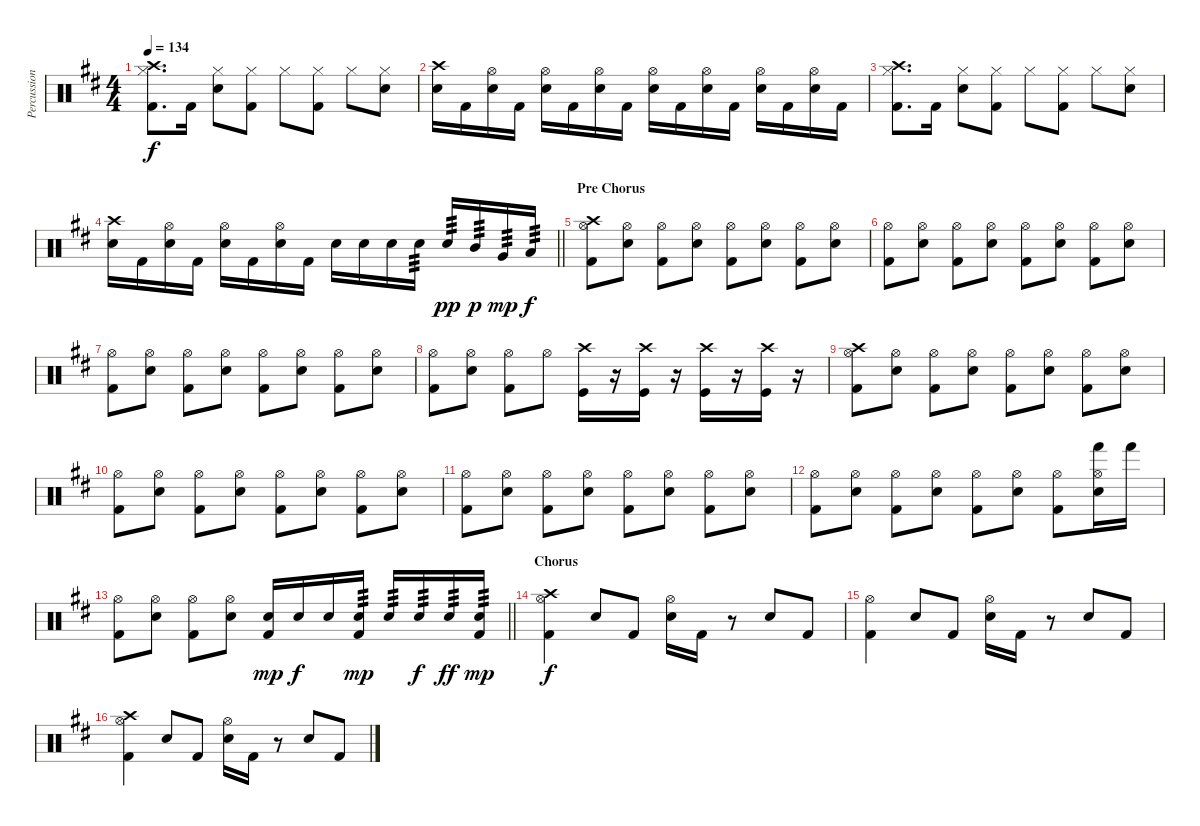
\track ("Percussion" "Percussion") {instrument percussion}
\staff {score}
\articulation defaults
\ts (4 4)
\tempo 134
\clef neutral
\ks bminor
("Crash high (hit)" "Hi-Hat (closed)" "Kick (hit) 2").8{d dy f} "Kick (hit) 2".16 ("Hi-Hat (closed)" "Snare (hit) 2").8 ("Hi-Hat (closed)" "Kick (hit) 2").8 "Hi-Hat (closed)".8 ("Hi-Hat (closed)" "Kick (hit) 2").8 "Hi-Hat (closed)".8 ("Hi-Hat (closed)" "Snare (hit) 2").8 |
("Crash high (hit)" "Snare (hit) 2").16 "Kick (hit) 2".16 ("Hi-Hat (open)" "Snare (hit) 2").16 "Kick (hit) 2".16 ("Hi-Hat (open)" "Snare (hit) 2").16 "Kick (hit) 2".16 ("Hi-Hat (open)" "Snare (hit) 2").16 "Kick (hit) 2".16 ("Hi-Hat (open)" "Snare (hit) 2").16 "Kick (hit) 2".16 ("Hi-Hat (open)" "Snare (hit) 2").16 "Kick (hit) 2".16 ("Hi-Hat (open)" "Snare (hit) 2").16 "Kick (hit) 2".16 ("Hi-Hat (open)" "Snare (hit) 2").16 "Kick (hit) 2".16 |
("Crash high (hit)" "Hi-Hat (closed)" "Kick (hit) 2").8{d} "Kick (hit) 2".16 ("Hi-Hat (closed)" "Snare (hit) 2").8 ("Hi-Hat (closed)" "Kick (hit) 2").8 "Hi-Hat (closed)".8 ("Hi-Hat (closed)" "Kick (hit) 2").8 "Hi-Hat (closed)".8 ("Hi-Hat (closed)" "Snare (hit) 2").8 |
\barLineRight lightlight
("Crash high (hit)" "Snare (hit) 2").16 "Kick (hit) 2".16 ("Hi-Hat (open)" "Snare (hit) 2").16 "Kick (hit) 2".16 ("Hi-Hat (open)" "Snare (hit) 2").16 "Kick (hit) 2".16 ("Hi-Hat (open)" "Snare (hit) 2").16 "Kick (hit) 2".16 "Snare (hit) 2".16 "Snare (hit) 2".16 "Snare (hit) 2".16 "Snare (hit) 2".16{tp 3} "Snare (hit) 2".16{tp 3 dy pp} "Mid Tom (hit)".16{tp 3 dy p} "Very Low Tom (hit)".16{tp 3 dy mp} "Low Floor Tom (hit)".16{tp 3 dy f} |
\section ("" "Pre Chorus")
("Crash high (hit)" "Hi-Hat (open)" "Kick (hit) 2").8 ("Hi-Hat (open)" "Snare (hit) 2").8 ("Hi-Hat (open)" "Kick (hit) 2").8 ("Hi-Hat (open)" "Snare (hit) 2").8 ("Hi-Hat (open)" "Kick (hit) 2").8 ("Hi-Hat (open)" "Snare (hit) 2").8 ("Hi-Hat (open)" "Kick (hit) 2").8 ("Hi-Hat (open)" "Snare (hit) 2").8 |
("Hi-Hat (open)" "Kick (hit) 2").8 ("Hi-Hat (open)" "Snare (hit) 2").8 ("Hi-Hat (open)" "Kick (hit) 2").8 ("Hi-Hat (open)" "Snare (hit) 2").8 ("Hi-Hat (open)" "Kick (hit) 2").8 ("Hi-Hat (open)" "Snare (hit) 2").8 ("Hi-Hat (open)" "Kick (hit) 2").8 ("Hi-Hat (open)" "Snare (hit) 2").8 |
("Hi-Hat (open)" "Kick (hit) 2").8 ("Hi-Hat (open)" "Snare (hit) 2").8 ("Hi-Hat (open)" "Kick (hit) 2").8 ("Hi-Hat (open)" "Snare (hit) 2").8 ("Hi-Hat (open)" "Kick (hit) 2").8 ("Hi-Hat (open)" "Snare (hit) 2").8 ("Hi-Hat (open)" "Kick (hit) 2").8 ("Hi-Hat (open)" "Snare (hit) 2").8 |
("Hi-Hat (open)" "Kick (hit) 2").8 ("Hi-Hat (open)" "Snare (hit) 2").8 ("Hi-Hat (open)" "Kick (hit) 2").8 "Hi-Hat (open)".8 ("Crash high (hit)" "Kick (hit)").16 r.16 ("Crash high (hit)" "Kick (hit)").16 r.16 ("Crash high (hit)" "Kick (hit)").16 r.16 ("Crash high (hit)" "Kick (hit)").16 r.16 |
("Crash high (hit)" "Hi-Hat (open)" "Kick (hit) 2").8 ("Hi-Hat (open)" "Snare (hit) 2").8 ("Hi-Hat (open)" "Kick (hit) 2").8 ("Hi-Hat (open)" "Snare (hit) 2").8 ("Hi-Hat (open)" "Kick (hit) 2").8 ("Hi-Hat (open)" "Snare (hit) 2").8 ("Hi-Hat (open)" "Kick (hit) 2").8 ("Hi-Hat (open)" "Snare (hit) 2").8 |
("Hi-Hat (open)" "Kick (hit) 2").8 ("Hi-Hat (open)" "Snare (hit) 2").8 ("Hi-Hat (open)" "Kick (hit) 2").8 ("Hi-Hat (open)" "Snare (hit) 2").8 ("Hi-Hat (open)" "Kick (hit) 2").8 ("Hi-Hat (open)" "Snare (hit) 2").8 ("Hi-Hat (open)" "Kick (hit) 2").8 ("Hi-Hat (open)" "Snare (hit) 2").8 |
("Hi-Hat (open)" "Kick (hit) 2").8 ("Hi-Hat (open)" "Snare (hit) 2").8 ("Hi-Hat (open)" "Kick (hit) 2").8 ("Hi-Hat (open)" "Snare (hit) 2").8 ("Hi-Hat (open)" "Kick (hit) 2").8 ("Hi-Hat (open)" "Snare (hit) 2").8 ("Hi-Hat (open)" "Kick (hit) 2").8 ("Hi-Hat (open)" "Snare (hit) 2").8 |
("Hi-Hat (open)" "Kick (hit) 2").8 ("Hi-Hat (open)" "Snare (hit) 2").8 ("Hi-Hat (open)" "Kick (hit) 2").8 ("Hi-Hat (open)" "Snare (hit) 2").8 ("Hi-Hat (open)" "Kick (hit) 2").8 ("Hi-Hat (open)" "Snare (hit) 2").8 ("Hi-Hat (open)" "Kick (hit) 2").8 ("Hand (hit)" "Hi-Hat (open)" "Snare (hit) 2").16 "Hand (hit)".16 |
\barLineRight lightlight
("Hi-Hat (open)" "Kick (hit) 2").8 ("Hi-Hat (open)" "Snare (hit) 2").8 ("Hi-Hat (open)" "Kick (hit) 2").8 ("Hi-Hat (open)" "Snare (hit) 2").8 ("Snare (hit) 2" "Kick (hit) 2").16{dy mp} "Snare (hit) 2".16{dy f} "Snare (hit) 2".16 ("Snare (hit) 2" "Kick (hit) 2").16{tp 3 dy mp} "Snare (hit) 2".16{tp 3} "Snare (hit) 2".16{tp 3 dy f} "Snare (hit) 2".16{tp 3 dy ff} ("Snare (hit) 2" "Kick (hit) 2").16{tp 3 dy mp} |
\section ("" "Chorus")
("Crash high (hit)" "Hi-Hat (open)" "Kick (hit) 2").4{dy f} "Snare (hit) 2".8 "Kick (hit) 2".8 ("Hi-Hat (open)" "Snare (hit) 2").16 "Kick (hit) 2".16 r.8 "Snare (hit) 2".8 "Kick (hit) 2".8 |
("Hi-Hat (open)" "Kick (hit) 2").4 "Snare (hit) 2".8 "Kick (hit) 2".8 ("Hi-Hat (open)" "Snare (hit) 2").16 "Kick (hit) 2".16 r.8 "Snare (hit) 2".8 "Kick (hit) 2".8 |
("Crash high (hit)" "Hi-Hat (open)" "Kick (hit) 2").4 "Snare (hit) 2".8 "Kick (hit) 2".8 ("Hi-Hat (open)" "Snare (hit) 2").16 "Kick (hit) 2".16 r.8 "Snare (hit) 2".8 "Kick (hit) 2".8
